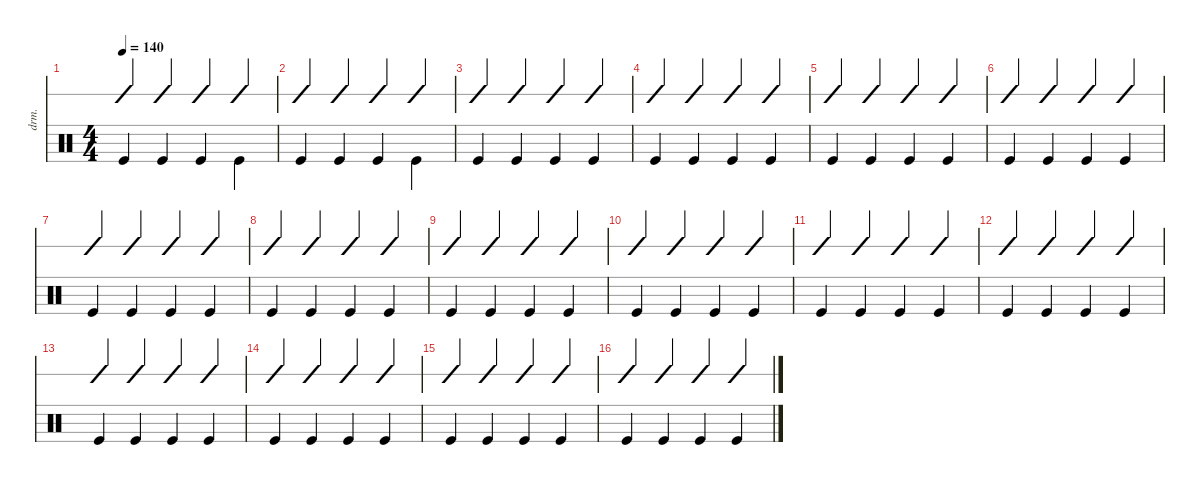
\defaultSystemsLayout 4
\hideDynamics
\bracketExtendMode nobrackets
\otherSystemsTrackNameOrientation horizontal
\track ("Drumkit" "drm.") {instrument percussion}
\staff {score slash}
\articulation defaults
\ts (4 4)
\tempo 140
\clef neutral
\ks c "Kick (hit)".4{dy mf beam Up} "Kick (hit)".4{beam Up} "Kick (hit)".4{beam Up} "Kick (hit)".4{beam Down}
|
"Kick (hit)".4{beam Up} "Kick (hit)".4{beam Up} "Kick (hit)".4{beam Up} "Kick (hit)".4{beam Down} |
"Kick (hit)".4{beam Up} "Kick (hit)".4{beam Up} "Kick (hit)".4{beam Up} "Kick (hit)".4{beam Up} |
"Kick (hit)".4{beam Up} "Kick (hit)".4{beam Up} "Kick (hit)".4{beam Up} "Kick (hit)".4{beam Up} |
"Kick (hit)".4{beam Up} "Kick (hit)".4{beam Up} "Kick (hit)".4{beam Up} "Kick (hit)".4{beam Up} |
"Kick (hit)".4{beam Up} "Kick (hit)".4{beam Up} "Kick (hit)".4{beam Up} "Kick (hit)".4{beam Up} |
"Kick (hit)".4{beam Up} "Kick (hit)".4{beam Up} "Kick (hit)".4{beam Up} "Kick (hit)".4{beam Up} |
"Kick (hit)".4{beam Up} "Kick (hit)".4{beam Up} "Kick (hit)".4{beam Up} "Kick (hit)".4{beam Up} |
"Kick (hit)".4{beam Up} "Kick (hit)".4{beam Up} "Kick (hit)".4{beam Up} "Kick (hit)".4{beam Up} |
"Kick (hit)".4{beam Up} "Kick (hit)".4{beam Up} "Kick (hit)".4{beam Up} "Kick (hit)".4{beam Up} |
"Kick (hit)".4{beam Up} "Kick (hit)".4{beam Up} "Kick (hit)".4{beam Up} "Kick (hit)".4{beam Up} |
"Kick (hit)".4{beam Up} "Kick (hit)".4{beam Up} "Kick (hit)".4{beam Up} "Kick (hit)".4{beam Up} |
"Kick (hit)".4{beam Up} "Kick (hit)".4{beam Up} "Kick (hit)".4{beam Up} "Kick (hit)".4{beam Up} |
"Kick (hit)".4{beam Up} "Kick (hit)".4{beam Up} "Kick (hit)".4{beam Up} "Kick (hit)".4{beam Up} |
"Kick (hit)".4{beam Up} "Kick (hit)".4{beam Up} "Kick (hit)".4{beam Up} "Kick (hit)".4{beam Up} |
"Kick (hit)".4{beam Up} "Kick (hit)".4{beam Up} "Kick (hit)".4{beam Up} "Kick (hit)".4{beam Up}
